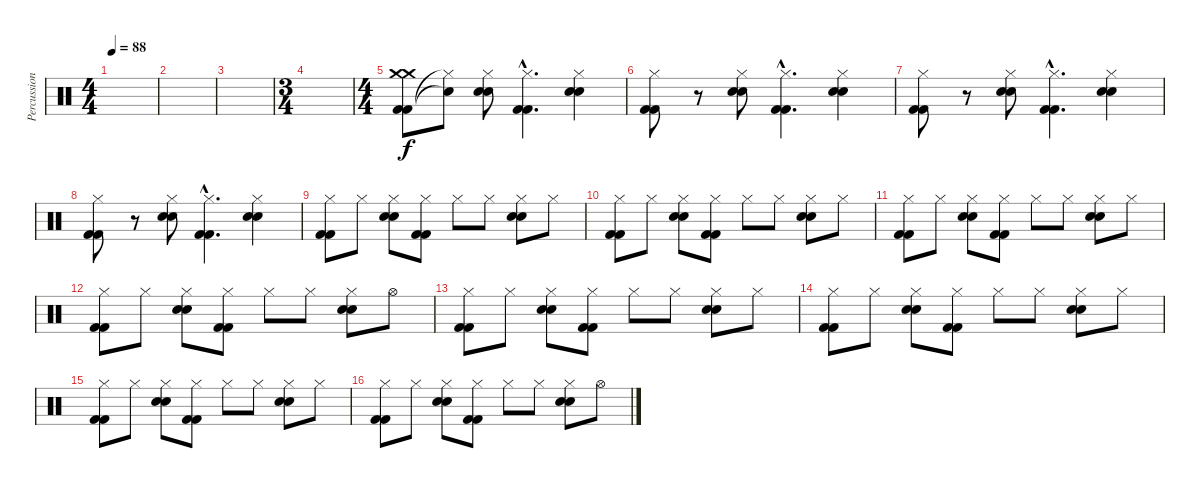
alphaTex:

\track ("Percussion" "Percussion") {instrument percussion}
\staff {score}
\articulation defaults
\ts (4 4)
\tempo 88
\clef neutral
\ks c
|
|
|
\ts (3 4)
|
\ts (4 4)
("Kick (hit) 2" "Kick (hit) 2" "Crash medium (hit)" "Crash medium (hit)").8 ("Snare (hit)"{t} "Hi-Hat (closed)"{t}).8 ("Snare (hit) 2" "Snare (hit) 2" "Hi-Hat (closed)").8 ("Kick (hit) 2"{hac} "Kick (hit) 2"{hac} "Hi-Hat (closed)"{hac}).4{d} ("Snare (hit) 2" "Snare (hit) 2" "Hi-Hat (closed)").4 |
("Kick (hit) 2" "Kick (hit) 2" "Hi-Hat (closed)").8 r.8 ("Snare (hit) 2" "Snare (hit) 2" "Hi-Hat (closed)").8 ("Kick (hit) 2"{hac} "Kick (hit) 2"{hac} "Hi-Hat (closed)"{hac}).4{d} ("Snare (hit) 2" "Snare (hit) 2" "Hi-Hat (closed)").4 |
("Kick (hit) 2" "Kick (hit) 2" "Hi-Hat (closed)").8 r.8 ("Snare (hit) 2" "Snare (hit) 2" "Hi-Hat (closed)").8 ("Kick (hit) 2"{hac} "Kick (hit) 2"{hac} "Hi-Hat (closed)"{hac}).4{d} ("Snare (hit) 2" "Snare (hit) 2" "Hi-Hat (closed)").4 |
("Kick (hit) 2" "Kick (hit) 2" "Hi-Hat (closed)").8 r.8 ("Snare (hit) 2" "Snare (hit) 2" "Hi-Hat (closed)").8 ("Kick (hit) 2"{hac} "Kick (hit) 2"{hac} "Hi-Hat (closed)"{hac}).4{d} ("Snare (hit) 2" "Snare (hit) 2" "Hi-Hat (closed)").4 |
("Kick (hit) 2" "Kick (hit) 2" "Hi-Hat (closed)").8 "Hi-Hat (closed)".8 ("Snare (hit) 2" "Snare (hit) 2" "Hi-Hat (closed)").8 ("Kick (hit) 2" "Kick (hit) 2" "Hi-Hat (closed)").8 "Hi-Hat (closed)".8 "Hi-Hat (closed)".8 ("Snare (hit) 2" "Snare (hit) 2" "Hi-Hat (closed)").8 "Hi-Hat (closed)".8 |
("Kick (hit) 2" "Kick (hit) 2" "Hi-Hat (closed)").8 "Hi-Hat (closed)".8 ("Snare (hit) 2" "Snare (hit) 2" "Hi-Hat (closed)").8 ("Kick (hit) 2" "Kick (hit) 2" "Hi-Hat (closed)").8 "Hi-Hat (closed)".8 "Hi-Hat (closed)".8 ("Snare (hit) 2" "Snare (hit) 2" "Hi-Hat (closed)").8 "Hi-Hat (closed)".8 |
("Kick (hit) 2" "Kick (hit) 2" "Hi-Hat (closed)").8 "Hi-Hat (closed)".8 ("Snare (hit) 2" "Snare (hit) 2" "Hi-Hat (closed)").8 ("Kick (hit) 2" "Kick (hit) 2" "Hi-Hat (closed)").8 "Hi-Hat (closed)".8 "Hi-Hat (closed)".8 ("Snare (hit) 2" "Snare (hit) 2" "Hi-Hat (closed)").8 "Hi-Hat (closed)".8 |
("Kick (hit) 2" "Kick (hit) 2" "Hi-Hat (closed)").8 "Hi-Hat (closed)".8 ("Snare (hit) 2" "Snare (hit) 2" "Hi-Hat (closed)").8 ("Kick (hit) 2" "Kick (hit) 2" "Hi-Hat (closed)").8 "Hi-Hat (closed)".8 "Hi-Hat (closed)".8 ("Snare (hit) 2" "Snare (hit) 2" "Hi-Hat (closed)").8 "Hi-Hat (open)".8 |
("Kick (hit) 2" "Kick (hit) 2" "Hi-Hat (closed)").8 "Hi-Hat (closed)".8 ("Snare (hit) 2" "Snare (hit) 2" "Hi-Hat (closed)").8 ("Kick (hit) 2" "Kick (hit) 2" "Hi-Hat (closed)").8 "Hi-Hat (closed)".8 "Hi-Hat (closed)".8 ("Snare (hit) 2" "Snare (hit) 2" "Hi-Hat (closed)").8 "Hi-Hat (closed)".8 |
("Kick (hit) 2" "Kick (hit) 2" "Hi-Hat (closed)").8 "Hi-Hat (closed)".8 ("Snare (hit) 2" "Snare (hit) 2" "Hi-Hat (closed)").8 ("Kick (hit) 2" "Kick (hit) 2" "Hi-Hat (closed)").8 "Hi-Hat (closed)".8 "Hi-Hat (closed)".8 ("Snare (hit) 2" "Snare (hit) 2" "Hi-Hat (closed)").8 "Hi-Hat (closed)".8 |
("Kick (hit) 2" "Kick (hit) 2" "Hi-Hat (closed)").8 "Hi-Hat (closed)".8 ("Snare (hit) 2" "Snare (hit) 2" "Hi-Hat (closed)").8 ("Kick (hit) 2" "Kick (hit) 2" "Hi-Hat (closed)").8 "Hi-Hat (closed)".8 "Hi-Hat (closed)".8 ("Snare (hit) 2" "Snare (hit) 2" "Hi-Hat (closed)").8 "Hi-Hat (closed)".8 |
("Kick (hit) 2" "Kick (hit) 2" "Hi-Hat (closed)").8 "Hi-Hat (closed)".8 ("Snare (hit) 2" "Snare (hit) 2" "Hi-Hat (closed)").8 ("Kick (hit) 2" "Kick (hit) 2" "Hi-Hat (closed)").8 "Hi-Hat (closed)".8 "Hi-Hat (closed)".8 ("Snare (hit) 2" "Snare (hit) 2" "Hi-Hat (closed)").8 "Hi-Hat (open)".8
